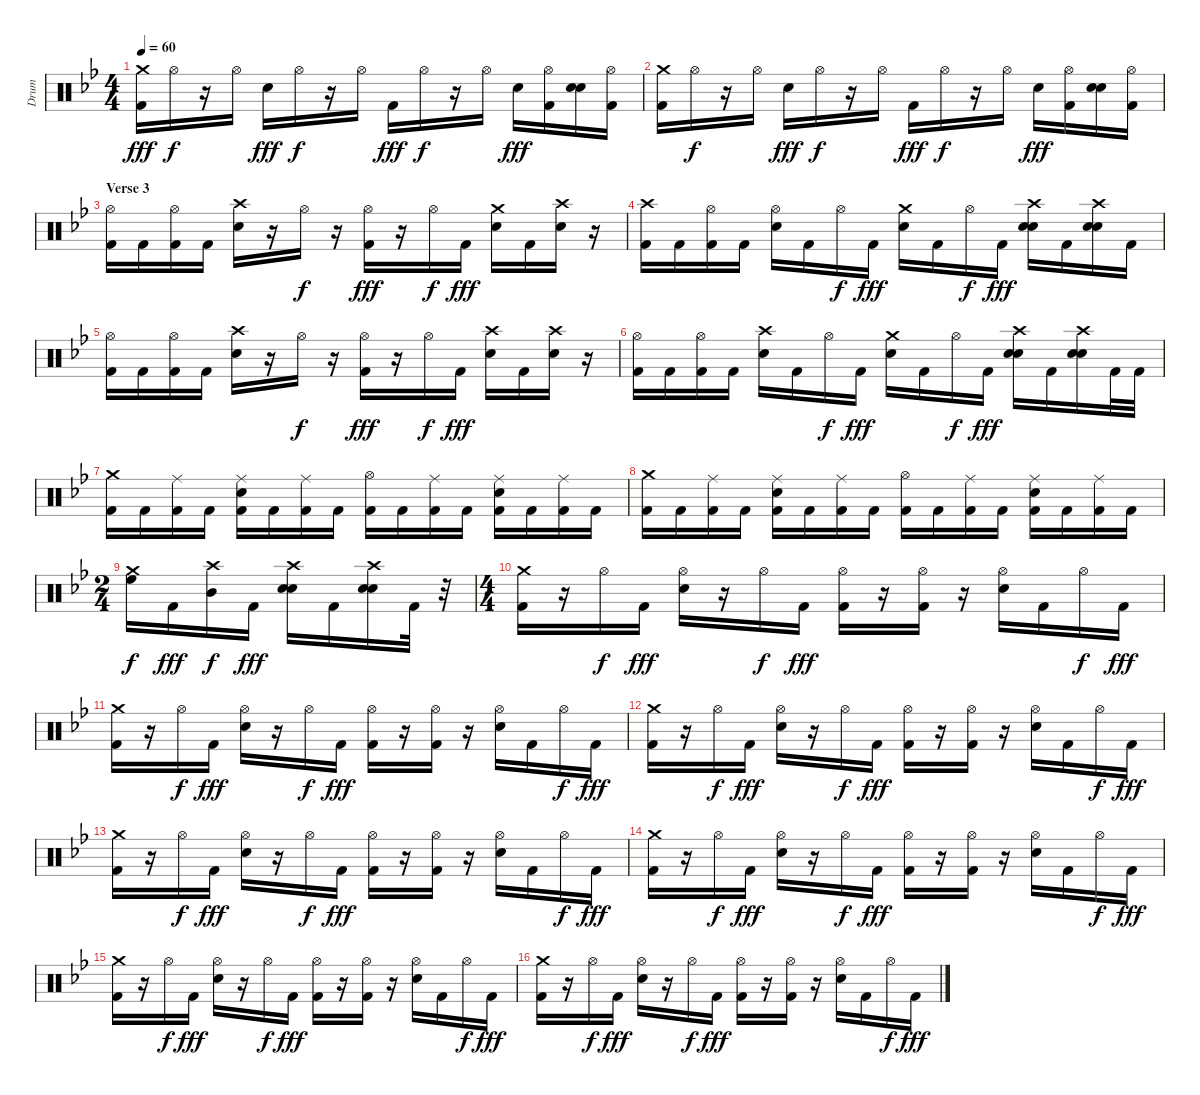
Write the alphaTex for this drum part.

\track ("Drum" "Drum") {instrument percussion}
\staff {score}
\articulation defaults
\ts (4 4)
\tempo 60
\clef neutral
\ks gminor
("Kick (hit) 2" "Crash medium (hit)").16{dy fff} "Hi-Hat (open)".16{dy f} r.16 "Hi-Hat (open)".16 "Electric Snare (hit)".16{dy fff} "Hi-Hat (open)".16{dy f} r.16 "Hi-Hat (open)".16 "Kick (hit) 2".16{dy fff} "Hi-Hat (open)".16{dy f} r.16 "Hi-Hat (open)".16 "Electric Snare (hit)".16{dy fff} ("Kick (hit) 2" "Hi-Hat (open)").16 ("Snare (hit) 2" "Electric Snare (hit)").16 ("Kick (hit) 2" "Hi-Hat (open)").16 |
("Kick (hit) 2" "Crash medium (hit)").16 "Hi-Hat (open)".16{dy f} r.16 "Hi-Hat (open)".16 "Electric Snare (hit)".16{dy fff} "Hi-Hat (open)".16{dy f} r.16 "Hi-Hat (open)".16 "Kick (hit) 2".16{dy fff} "Hi-Hat (open)".16{dy f} r.16 "Hi-Hat (open)".16 "Electric Snare (hit)".16{dy fff} ("Kick (hit) 2" "Hi-Hat (open)").16 ("Snare (hit) 2" "Electric Snare (hit)").16 ("Kick (hit) 2" "Hi-Hat (open)").16 |
\section ("" "Verse 3")
("Kick (hit) 2" "Hi-Hat (open)").16 "Kick (hit) 2".16 ("Kick (hit) 2" "Hi-Hat (open)").16 "Kick (hit) 2".16 ("Electric Snare (hit)" "Crash high (hit)").16 r.16 "Hi-Hat (open)".16{dy f} r.16 ("Kick (hit) 2" "Hi-Hat (open)").16{dy fff} r.16 "Hi-Hat (open)".16{dy f} "Kick (hit) 2".16{dy fff} ("Electric Snare (hit)" "Crash medium (hit)").16 "Kick (hit) 2".16 ("Electric Snare (hit)" "Crash high (hit)").16 r.16 |
("Kick (hit) 2" "Crash high (hit)").16 "Kick (hit) 2".16 ("Kick (hit) 2" "Hi-Hat (open)").16 "Kick (hit) 2".16 ("Electric Snare (hit)" "Hi-Hat (open)").16 "Kick (hit) 2".16 "Hi-Hat (open)".16{dy f} "Kick (hit) 2".16{dy fff} ("Electric Snare (hit)" "Crash medium (hit)").16 "Kick (hit) 2".16 "Hi-Hat (open)".16{dy f} "Kick (hit) 2".16{dy fff} ("Electric Snare (hit)" "Electric Snare (hit)" "Crash high (hit)").16 "Kick (hit) 2".16 ("Electric Snare (hit)" "Electric Snare (hit)" "Crash high (hit)").16 "Kick (hit) 2".16 |
("Kick (hit) 2" "Hi-Hat (open)").16 "Kick (hit) 2".16 ("Kick (hit) 2" "Hi-Hat (open)").16 "Kick (hit) 2".16 ("Electric Snare (hit)" "Crash high (hit)").16 r.16 "Hi-Hat (open)".16{dy f} r.16 ("Kick (hit) 2" "Hi-Hat (open)").16{dy fff} r.16 "Hi-Hat (open)".16{dy f} "Kick (hit) 2".16{dy fff} ("Electric Snare (hit)" "Crash high (hit)").16 "Kick (hit) 2".16 ("Electric Snare (hit)" "Crash high (hit)").16 r.16 |
("Kick (hit) 2" "Hi-Hat (open)").16 "Kick (hit) 2".16 ("Kick (hit) 2" "Hi-Hat (open)").16 "Kick (hit) 2".16 ("Electric Snare (hit)" "Crash high (hit)").16 "Kick (hit) 2".16 "Hi-Hat (open)".16{dy f} "Kick (hit) 2".16{dy fff} ("Electric Snare (hit)" "Crash medium (hit)").16 "Kick (hit) 2".16 "Hi-Hat (open)".16{dy f} "Kick (hit) 2".16{dy fff} ("Electric Snare (hit)" "Crash high (hit)" "Electric Snare (hit)").16 "Kick (hit) 2".16 ("Electric Snare (hit)" "Electric Snare (hit)" "Crash high (hit)").16 "Kick (hit) 2".32 "Kick (hit) 2".32 |
("Kick (hit) 2" "Crash medium (hit)").16 "Kick (hit) 2".16 ("Kick (hit) 2" "Ride (middle)").16 "Kick (hit) 2".16 ("Electric Snare (hit)" "Kick (hit) 2" "Ride (middle)").16 "Kick (hit) 2".16 ("Kick (hit) 2" "Ride (middle)").16 "Kick (hit) 2".16 ("Kick (hit) 2" "Hi-Hat (open)").16 "Kick (hit) 2".16 ("Kick (hit) 2" "Ride (middle)").16 "Kick (hit) 2".16 ("Electric Snare (hit)" "Kick (hit) 2" "Ride (middle)").16 "Kick (hit) 2".16 ("Kick (hit) 2" "Ride (middle)").16 "Kick (hit) 2".16 |
("Kick (hit) 2" "Crash medium (hit)").16 "Kick (hit) 2".16 ("Kick (hit) 2" "Ride (middle)").16 "Kick (hit) 2".16 ("Kick (hit) 2" "Electric Snare (hit)" "Ride (middle)").16 "Kick (hit) 2".16 ("Kick (hit) 2" "Ride (middle)").16 "Kick (hit) 2".16 ("Kick (hit) 2" "Hi-Hat (open)").16 "Kick (hit) 2".16 ("Kick (hit) 2" "Ride (middle)").16 "Kick (hit) 2".16 ("Electric Snare (hit)" "Kick (hit) 2" "Ride (middle)").16 "Kick (hit) 2".16 ("Kick (hit) 2" "Ride (middle)").16 "Kick (hit) 2".16 |
\ts (2 4)
("High Floor Tom (hit)" "Crash medium (hit)").16{dy f} "Kick (hit) 2".16{dy fff} ("Mid Tom (hit)" "Crash high (hit)").16{dy f} "Kick (hit) 2".16{dy fff} ("Electric Snare (hit)" "Electric Snare (hit)" "Crash high (hit)").16 "Kick (hit) 2".16 ("Electric Snare (hit)" "Electric Snare (hit)" "Crash high (hit)").16 "Kick (hit) 2".32 r.32 |
\ts (4 4)
("Kick (hit) 2" "Crash medium (hit)").16 r.16 "Hi-Hat (open)".16{dy f} "Kick (hit) 2".16{dy fff} ("Electric Snare (hit)" "Hi-Hat (open)").16 r.16 "Hi-Hat (open)".16{dy f} "Kick (hit) 2".16{dy fff} ("Kick (hit) 2" "Hi-Hat (open)").16 r.16 ("Kick (hit) 2" "Hi-Hat (open)").16 r.16 ("Electric Snare (hit)" "Hi-Hat (open)").16 "Kick (hit) 2".16 "Hi-Hat (open)".16{dy f} "Kick (hit) 2".16{dy fff} |
("Kick (hit) 2" "Crash medium (hit)").16 r.16 "Hi-Hat (open)".16{dy f} "Kick (hit) 2".16{dy fff} ("Electric Snare (hit)" "Hi-Hat (open)").16 r.16 "Hi-Hat (open)".16{dy f} "Kick (hit) 2".16{dy fff} ("Kick (hit) 2" "Hi-Hat (open)").16 r.16 ("Kick (hit) 2" "Hi-Hat (open)").16 r.16 ("Electric Snare (hit)" "Hi-Hat (open)").16 "Kick (hit) 2".16 "Hi-Hat (open)".16{dy f} "Kick (hit) 2".16{dy fff} |
("Kick (hit) 2" "Crash medium (hit)").16 r.16 "Hi-Hat (open)".16{dy f} "Kick (hit) 2".16{dy fff} ("Electric Snare (hit)" "Hi-Hat (open)").16 r.16 "Hi-Hat (open)".16{dy f} "Kick (hit) 2".16{dy fff} ("Kick (hit) 2" "Hi-Hat (open)").16 r.16 ("Kick (hit) 2" "Hi-Hat (open)").16 r.16 ("Electric Snare (hit)" "Hi-Hat (open)").16 "Kick (hit) 2".16 "Hi-Hat (open)".16{dy f} "Kick (hit) 2".16{dy fff} |
("Kick (hit) 2" "Crash medium (hit)").16 r.16 "Hi-Hat (open)".16{dy f} "Kick (hit) 2".16{dy fff} ("Electric Snare (hit)" "Hi-Hat (open)").16 r.16 "Hi-Hat (open)".16{dy f} "Kick (hit) 2".16{dy fff} ("Kick (hit) 2" "Hi-Hat (open)").16 r.16 ("Kick (hit) 2" "Hi-Hat (open)").16 r.16 ("Electric Snare (hit)" "Hi-Hat (open)").16 "Kick (hit) 2".16 "Hi-Hat (open)".16{dy f} "Kick (hit) 2".16{dy fff} |
("Kick (hit) 2" "Crash medium (hit)").16 r.16 "Hi-Hat (open)".16{dy f} "Kick (hit) 2".16{dy fff} ("Electric Snare (hit)" "Hi-Hat (open)").16 r.16 "Hi-Hat (open)".16{dy f} "Kick (hit) 2".16{dy fff} ("Kick (hit) 2" "Hi-Hat (open)").16 r.16 ("Kick (hit) 2" "Hi-Hat (open)").16 r.16 ("Electric Snare (hit)" "Hi-Hat (open)").16 "Kick (hit) 2".16 "Hi-Hat (open)".16{dy f} "Kick (hit) 2".16{dy fff} |
("Kick (hit) 2" "Crash medium (hit)").16 r.16 "Hi-Hat (open)".16{dy f} "Kick (hit) 2".16{dy fff} ("Electric Snare (hit)" "Hi-Hat (open)").16 r.16 "Hi-Hat (open)".16{dy f} "Kick (hit) 2".16{dy fff} ("Kick (hit) 2" "Hi-Hat (open)").16 r.16 ("Kick (hit) 2" "Hi-Hat (open)").16 r.16 ("Electric Snare (hit)" "Hi-Hat (open)").16 "Kick (hit) 2".16 "Hi-Hat (open)".16{dy f} "Kick (hit) 2".16{dy fff} |
("Kick (hit) 2" "Crash medium (hit)").16 r.16 "Hi-Hat (open)".16{dy f} "Kick (hit) 2".16{dy fff} ("Electric Snare (hit)" "Hi-Hat (open)").16 r.16 "Hi-Hat (open)".16{dy f} "Kick (hit) 2".16{dy fff} ("Kick (hit) 2" "Hi-Hat (open)").16 r.16 ("Kick (hit) 2" "Hi-Hat (open)").16 r.16 ("Electric Snare (hit)" "Hi-Hat (open)").16 "Kick (hit) 2".16 "Hi-Hat (open)".16{dy f} "Kick (hit) 2".16{dy fff}
